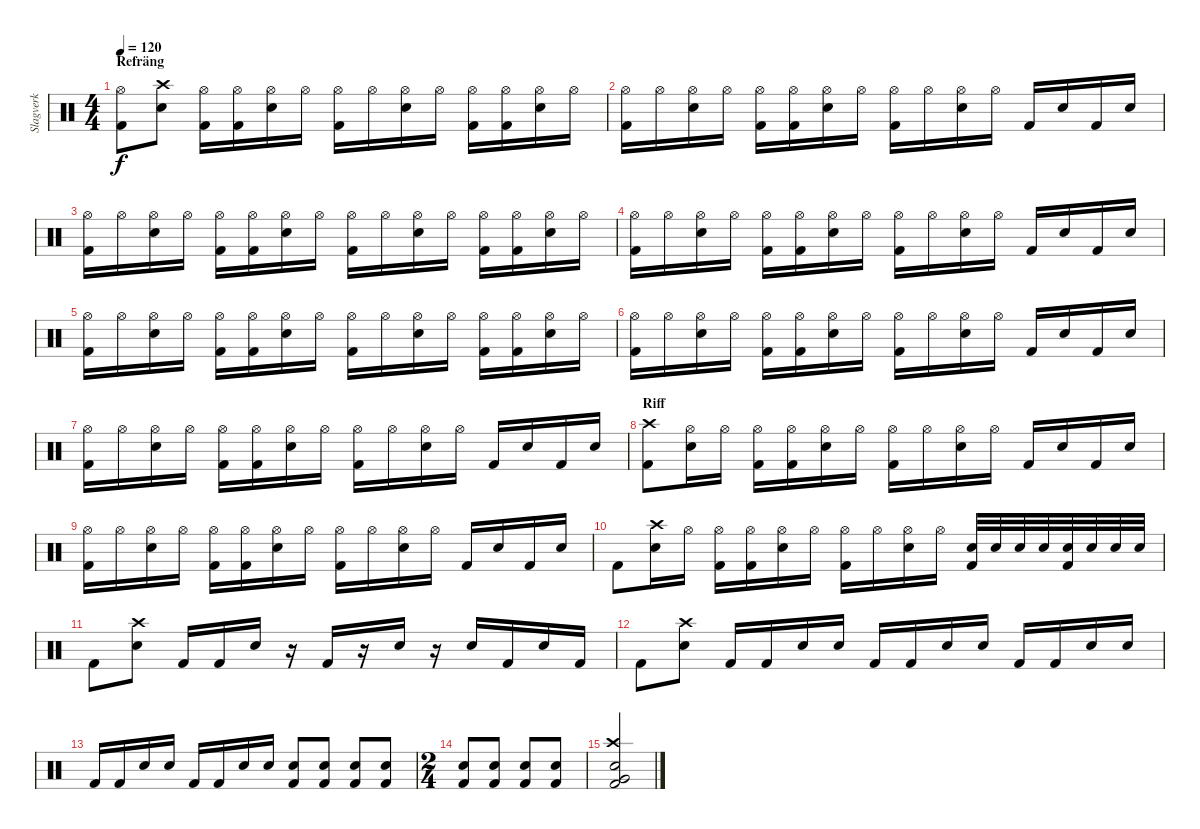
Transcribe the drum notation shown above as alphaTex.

\track ("Slagverk" "Slagverk") {instrument percussion}
\staff {score}
\articulation defaults
\ts (4 4)
\section ("" "Refräng")
\tempo 120
\clef neutral
\ks c
("Hi-Hat (open)" "Kick (hit) 2").8{dy f} ("Crash high (hit)" "Electric Snare (hit)").8 ("Hi-Hat (open)" "Kick (hit) 2").16 ("Hi-Hat (open)" "Kick (hit) 2").16 ("Hi-Hat (open)" "Electric Snare (hit)").16 "Hi-Hat (open)".16 ("Hi-Hat (open)" "Kick (hit) 2").16 "Hi-Hat (open)".16 ("Hi-Hat (open)" "Electric Snare (hit)").16 "Hi-Hat (open)".16 ("Hi-Hat (open)" "Kick (hit) 2").16 ("Hi-Hat (open)" "Kick (hit) 2").16 ("Hi-Hat (open)" "Electric Snare (hit)").16 "Hi-Hat (open)".16 |
("Hi-Hat (open)" "Kick (hit) 2").16 "Hi-Hat (open)".16 ("Hi-Hat (open)" "Electric Snare (hit)").16 "Hi-Hat (open)".16 ("Hi-Hat (open)" "Kick (hit) 2").16 ("Hi-Hat (open)" "Kick (hit) 2").16 ("Hi-Hat (open)" "Electric Snare (hit)").16 "Hi-Hat (open)".16 ("Hi-Hat (open)" "Kick (hit) 2").16 "Hi-Hat (open)".16 ("Hi-Hat (open)" "Electric Snare (hit)").16 "Hi-Hat (open)".16 "Kick (hit) 2".16 "Electric Snare (hit)".16 "Kick (hit) 2".16 "Electric Snare (hit)".16 |
("Hi-Hat (open)" "Kick (hit) 2").16 "Hi-Hat (open)".16 ("Hi-Hat (open)" "Electric Snare (hit)").16 "Hi-Hat (open)".16 ("Hi-Hat (open)" "Kick (hit) 2").16 ("Hi-Hat (open)" "Kick (hit) 2").16 ("Hi-Hat (open)" "Electric Snare (hit)").16 "Hi-Hat (open)".16 ("Hi-Hat (open)" "Kick (hit) 2").16 "Hi-Hat (open)".16 ("Hi-Hat (open)" "Electric Snare (hit)").16 "Hi-Hat (open)".16 ("Hi-Hat (open)" "Kick (hit) 2").16 ("Hi-Hat (open)" "Kick (hit) 2").16 ("Hi-Hat (open)" "Electric Snare (hit)").16 "Hi-Hat (open)".16 |
("Hi-Hat (open)" "Kick (hit) 2").16 "Hi-Hat (open)".16 ("Hi-Hat (open)" "Electric Snare (hit)").16 "Hi-Hat (open)".16 ("Hi-Hat (open)" "Kick (hit) 2").16 ("Hi-Hat (open)" "Kick (hit) 2").16 ("Hi-Hat (open)" "Electric Snare (hit)").16 "Hi-Hat (open)".16 ("Hi-Hat (open)" "Kick (hit) 2").16 "Hi-Hat (open)".16 ("Hi-Hat (open)" "Electric Snare (hit)").16 "Hi-Hat (open)".16 "Kick (hit) 2".16 "Electric Snare (hit)".16 "Kick (hit) 2".16 "Electric Snare (hit)".16 |
("Hi-Hat (open)" "Kick (hit) 2").16 "Hi-Hat (open)".16 ("Hi-Hat (open)" "Electric Snare (hit)").16 "Hi-Hat (open)".16 ("Hi-Hat (open)" "Kick (hit) 2").16 ("Hi-Hat (open)" "Kick (hit) 2").16 ("Hi-Hat (open)" "Electric Snare (hit)").16 "Hi-Hat (open)".16 ("Hi-Hat (open)" "Kick (hit) 2").16 "Hi-Hat (open)".16 ("Hi-Hat (open)" "Electric Snare (hit)").16 "Hi-Hat (open)".16 ("Hi-Hat (open)" "Kick (hit) 2").16 ("Hi-Hat (open)" "Kick (hit) 2").16 ("Hi-Hat (open)" "Electric Snare (hit)").16 "Hi-Hat (open)".16 |
("Hi-Hat (open)" "Kick (hit) 2").16 "Hi-Hat (open)".16 ("Hi-Hat (open)" "Electric Snare (hit)").16 "Hi-Hat (open)".16 ("Hi-Hat (open)" "Kick (hit) 2").16 ("Hi-Hat (open)" "Kick (hit) 2").16 ("Hi-Hat (open)" "Electric Snare (hit)").16 "Hi-Hat (open)".16 ("Hi-Hat (open)" "Kick (hit) 2").16 "Hi-Hat (open)".16 ("Hi-Hat (open)" "Electric Snare (hit)").16 "Hi-Hat (open)".16 "Kick (hit) 2".16 "Electric Snare (hit)".16 "Kick (hit) 2".16 "Electric Snare (hit)".16 |
("Hi-Hat (open)" "Kick (hit) 2").16 "Hi-Hat (open)".16 ("Hi-Hat (open)" "Electric Snare (hit)").16 "Hi-Hat (open)".16 ("Hi-Hat (open)" "Kick (hit) 2").16 ("Hi-Hat (open)" "Kick (hit) 2").16 ("Hi-Hat (open)" "Electric Snare (hit)").16 "Hi-Hat (open)".16 ("Hi-Hat (open)" "Kick (hit) 2").16 "Hi-Hat (open)".16 ("Hi-Hat (open)" "Electric Snare (hit)").16 "Hi-Hat (open)".16 "Kick (hit) 2".16 "Electric Snare (hit)".16 "Kick (hit) 2".16 "Electric Snare (hit)".16 |
\section ("" "Riff")
("Crash high (hit)" "Kick (hit) 2").8 ("Hi-Hat (open)" "Electric Snare (hit)").16 "Hi-Hat (open)".16 ("Hi-Hat (open)" "Kick (hit) 2").16 ("Hi-Hat (open)" "Kick (hit) 2").16 ("Hi-Hat (open)" "Electric Snare (hit)").16 "Hi-Hat (open)".16 ("Hi-Hat (open)" "Kick (hit) 2").16 "Hi-Hat (open)".16 ("Hi-Hat (open)" "Electric Snare (hit)").16 "Hi-Hat (open)".16 "Kick (hit) 2".16 "Electric Snare (hit)".16 "Kick (hit) 2".16 "Electric Snare (hit)".16 |
("Hi-Hat (open)" "Kick (hit) 2").16 "Hi-Hat (open)".16 ("Hi-Hat (open)" "Electric Snare (hit)").16 "Hi-Hat (open)".16 ("Hi-Hat (open)" "Kick (hit) 2").16 ("Hi-Hat (open)" "Kick (hit) 2").16 ("Hi-Hat (open)" "Electric Snare (hit)").16 "Hi-Hat (open)".16 ("Hi-Hat (open)" "Kick (hit) 2").16 "Hi-Hat (open)".16 ("Hi-Hat (open)" "Electric Snare (hit)").16 "Hi-Hat (open)".16 "Kick (hit) 2".16 "Electric Snare (hit)".16 "Kick (hit) 2".16 "Electric Snare (hit)".16 |
"Kick (hit) 2".8 ("Crash high (hit)" "Electric Snare (hit)").16 "Hi-Hat (open)".16 ("Hi-Hat (open)" "Kick (hit) 2").16 ("Hi-Hat (open)" "Kick (hit) 2").16 ("Hi-Hat (open)" "Electric Snare (hit)").16 "Hi-Hat (open)".16 ("Hi-Hat (open)" "Kick (hit) 2").16 "Hi-Hat (open)".16 ("Hi-Hat (open)" "Electric Snare (hit)").16 "Hi-Hat (open)".16 ("Electric Snare (hit)" "Kick (hit) 2").32 "Electric Snare (hit)".32 "Electric Snare (hit)".32 "Electric Snare (hit)".32 ("Electric Snare (hit)" "Kick (hit) 2").32 "Electric Snare (hit)".32 "Electric Snare (hit)".32 "Electric Snare (hit)".32 |
"Kick (hit) 2".8 ("Crash high (hit)" "Electric Snare (hit)").8 "Kick (hit) 2".16 "Kick (hit) 2".16 "Electric Snare (hit)".16 r.16 "Kick (hit) 2".16 r.16 "Electric Snare (hit)".16 r.16 "Electric Snare (hit)".16 "Kick (hit) 2".16 "Electric Snare (hit)".16 "Kick (hit) 2".16 |
"Kick (hit) 2".8 ("Crash high (hit)" "Electric Snare (hit)").8 "Kick (hit) 2".16 "Kick (hit) 2".16 "Electric Snare (hit)".16 "Electric Snare (hit)".16 "Kick (hit) 2".16 "Kick (hit) 2".16 "Electric Snare (hit)".16 "Electric Snare (hit)".16 "Kick (hit) 2".16 "Kick (hit) 2".16 "Electric Snare (hit)".16 "Electric Snare (hit)".16 |
"Kick (hit) 2".16 "Kick (hit) 2".16 "Electric Snare (hit)".16 "Electric Snare (hit)".16 "Kick (hit) 2".16 "Kick (hit) 2".16 "Electric Snare (hit)".16 "Electric Snare (hit)".16 ("Electric Snare (hit)" "Kick (hit) 2").8 ("Electric Snare (hit)" "Kick (hit) 2").8 ("Electric Snare (hit)" "Kick (hit) 2").8 ("Electric Snare (hit)" "Kick (hit) 2").8 |
\ts (2 4)
("Electric Snare (hit)" "Kick (hit) 2").8 ("Electric Snare (hit)" "Kick (hit) 2").8 ("Electric Snare (hit)" "Kick (hit) 2").8 ("Electric Snare (hit)" "Kick (hit) 2").8 |
("Crash high (hit)" "Very Low Tom (hit)" "Electric Snare (hit)" "Kick (hit) 2").2
